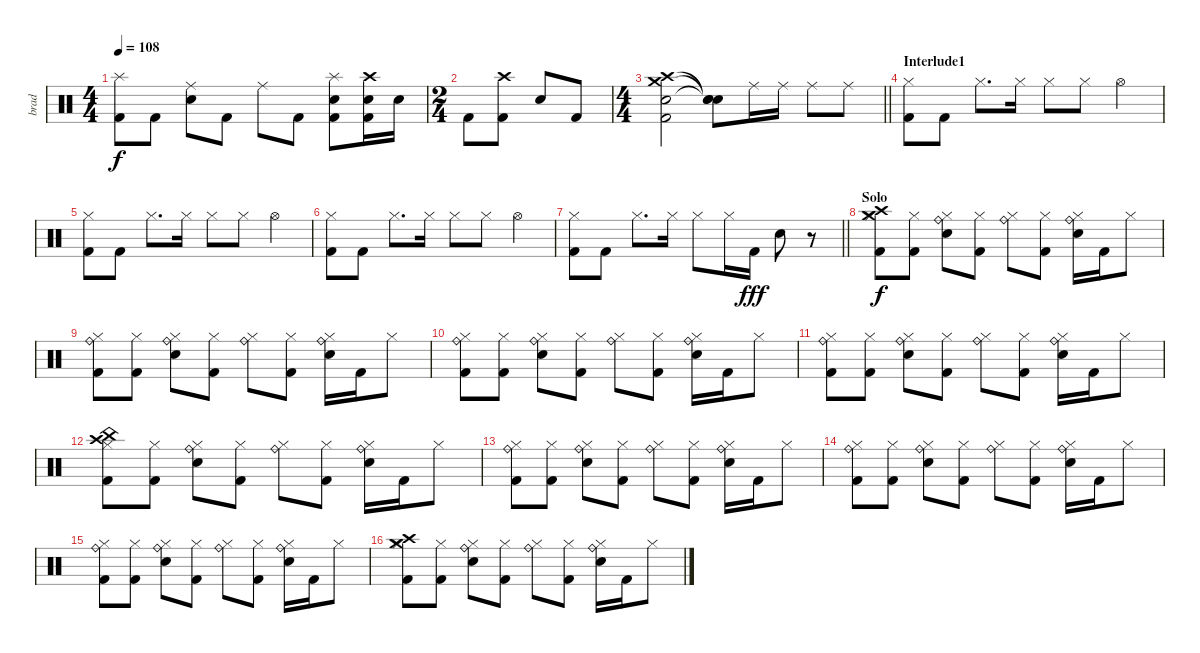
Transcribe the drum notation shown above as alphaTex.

\track ("brad" "brad") {instrument percussion}
\staff {score}
\articulation defaults
\ts (4 4)
\tempo 108
\clef neutral
\ks c
("Splash (hit)" "Kick (hit) 2").8{dy f} "Kick (hit) 2".8 ("Ride (middle)" "Electric Snare (hit)").8 "Kick (hit) 2".8 "Ride (middle)".8 "Kick (hit) 2".8 ("Splash (hit)" "Electric Snare (hit)" "Kick (hit) 2").8 ("Crash high (hit)" "Electric Snare (hit)" "Kick (hit) 2").16 "Electric Snare (hit)".16 |
\ts (2 4)
"Kick (hit) 2".8 ("Crash high (hit)" "Kick (hit) 2").8 "Electric Snare (hit)".8 "Kick (hit) 2".8 |
\ts (4 4)
\barLineRight lightlight
("Crash medium (hit)" "Crash high (hit)" "Electric Snare (hit)" "Kick (hit) 2").2 ("Snare (hit)"{t} "Snare (hit)"{t} "Snare (hit)"{t}).8 "Ride (middle)".16 "Ride (middle)".16 "Ride (middle)".8 "Ride (middle)".8 |
\section ("" "Interlude1")
("Hi-Hat (closed)" "Kick (hit) 2").8 "Kick (hit) 2".8 "Hi-Hat (closed)".8{d} "Hi-Hat (closed)".16 "Hi-Hat (closed)".8 "Hi-Hat (closed)".8 "Hi-Hat (open)".4 |
("Hi-Hat (closed)" "Kick (hit) 2").8 "Kick (hit) 2".8 "Hi-Hat (closed)".8{d} "Hi-Hat (closed)".16 "Hi-Hat (closed)".8 "Hi-Hat (closed)".8 "Hi-Hat (open)".4 |
("Hi-Hat (closed)" "Kick (hit) 2").8 "Kick (hit) 2".8 "Hi-Hat (closed)".8{d} "Hi-Hat (closed)".16 "Hi-Hat (closed)".8 "Hi-Hat (closed)".8 "Hi-Hat (open)".4 |
\barLineRight lightlight
("Hi-Hat (closed)" "Kick (hit) 2").8 "Kick (hit) 2".8 "Hi-Hat (closed)".8{d} "Hi-Hat (closed)".16 "Hi-Hat (closed)".8 "Hi-Hat (closed)".16 "Kick (hit) 2".16{dy fff} "Electric Snare (hit)".8 r.8 |
\section ("" "Solo")
("Crash medium (hit)" "Crash high (hit)" "Hi-Hat (closed)" "Kick (hit) 2").8{dy f} ("Hi-Hat (closed)" "Kick (hit) 2").8 ("Ride (bell)" "Hi-Hat (closed)" "Electric Snare (hit)").8 ("Hi-Hat (closed)" "Kick (hit) 2").8 ("Ride (bell)" "Hi-Hat (closed)").8 ("Hi-Hat (closed)" "Kick (hit) 2").8 ("Ride (bell)" "Hi-Hat (closed)" "Electric Snare (hit)").16 "Kick (hit) 2".16 "Hi-Hat (closed)".8 |
("Ride (bell)" "Hi-Hat (closed)" "Kick (hit) 2").8 ("Hi-Hat (closed)" "Kick (hit) 2").8 ("Ride (bell)" "Hi-Hat (closed)" "Electric Snare (hit)").8 ("Hi-Hat (closed)" "Kick (hit) 2").8 ("Ride (bell)" "Hi-Hat (closed)").8 ("Hi-Hat (closed)" "Kick (hit) 2").8 ("Ride (bell)" "Hi-Hat (closed)" "Electric Snare (hit)").16 "Kick (hit) 2".16 "Hi-Hat (closed)".8 |
("Ride (bell)" "Hi-Hat (closed)" "Kick (hit) 2").8 ("Hi-Hat (closed)" "Kick (hit) 2").8 ("Ride (bell)" "Hi-Hat (closed)" "Electric Snare (hit)").8 ("Hi-Hat (closed)" "Kick (hit) 2").8 ("Ride (bell)" "Hi-Hat (closed)").8 ("Hi-Hat (closed)" "Kick (hit) 2").8 ("Ride (bell)" "Hi-Hat (closed)" "Electric Snare (hit)").16 "Kick (hit) 2".16 "Hi-Hat (closed)".8 |
("Ride (bell)" "Hi-Hat (closed)" "Kick (hit) 2").8 ("Hi-Hat (closed)" "Kick (hit) 2").8 ("Ride (bell)" "Hi-Hat (closed)" "Electric Snare (hit)").8 ("Hi-Hat (closed)" "Kick (hit) 2").8 ("Ride (bell)" "Hi-Hat (closed)").8 ("Hi-Hat (closed)" "Kick (hit) 2").8 ("Ride (bell)" "Hi-Hat (closed)" "Electric Snare (hit)").16 "Kick (hit) 2".16 "Hi-Hat (closed)".8 |
("China (hit)" "Crash high (hit)" "Hi-Hat (closed)" "Kick (hit) 2").8 ("Hi-Hat (closed)" "Kick (hit) 2").8 ("Ride (bell)" "Hi-Hat (closed)" "Electric Snare (hit)").8 ("Hi-Hat (closed)" "Kick (hit) 2").8 ("Ride (bell)" "Hi-Hat (closed)").8 ("Hi-Hat (closed)" "Kick (hit) 2").8 ("Ride (bell)" "Hi-Hat (closed)" "Electric Snare (hit)").16 "Kick (hit) 2".16 "Hi-Hat (closed)".8 |
("Ride (bell)" "Hi-Hat (closed)" "Kick (hit) 2").8 ("Hi-Hat (closed)" "Kick (hit) 2").8 ("Ride (bell)" "Hi-Hat (closed)" "Electric Snare (hit)").8 ("Hi-Hat (closed)" "Kick (hit) 2").8 ("Ride (bell)" "Hi-Hat (closed)").8 ("Hi-Hat (closed)" "Kick (hit) 2").8 ("Ride (bell)" "Hi-Hat (closed)" "Electric Snare (hit)").16 "Kick (hit) 2".16 "Hi-Hat (closed)".8 |
("Ride (bell)" "Hi-Hat (closed)" "Kick (hit) 2").8 ("Hi-Hat (closed)" "Kick (hit) 2").8 ("Ride (bell)" "Hi-Hat (closed)" "Electric Snare (hit)").8 ("Hi-Hat (closed)" "Kick (hit) 2").8 ("Ride (bell)" "Hi-Hat (closed)").8 ("Hi-Hat (closed)" "Kick (hit) 2").8 ("Ride (bell)" "Hi-Hat (closed)" "Electric Snare (hit)").16 "Kick (hit) 2".16 "Hi-Hat (closed)".8 |
("Ride (bell)" "Hi-Hat (closed)" "Kick (hit) 2").8 ("Hi-Hat (closed)" "Kick (hit) 2").8 ("Ride (bell)" "Hi-Hat (closed)" "Electric Snare (hit)").8 ("Hi-Hat (closed)" "Kick (hit) 2").8 ("Ride (bell)" "Hi-Hat (closed)").8 ("Hi-Hat (closed)" "Kick (hit) 2").8 ("Ride (bell)" "Hi-Hat (closed)" "Electric Snare (hit)").16 "Kick (hit) 2".16 "Hi-Hat (closed)".8 |
("Crash medium (hit)" "Crash high (hit)" "Hi-Hat (closed)" "Kick (hit) 2").8 ("Hi-Hat (closed)" "Kick (hit) 2").8 ("Ride (bell)" "Hi-Hat (closed)" "Electric Snare (hit)").8 ("Hi-Hat (closed)" "Kick (hit) 2").8 ("Ride (bell)" "Hi-Hat (closed)").8 ("Hi-Hat (closed)" "Kick (hit) 2").8 ("Ride (bell)" "Hi-Hat (closed)" "Electric Snare (hit)").16 "Kick (hit) 2".16 "Hi-Hat (closed)".8
